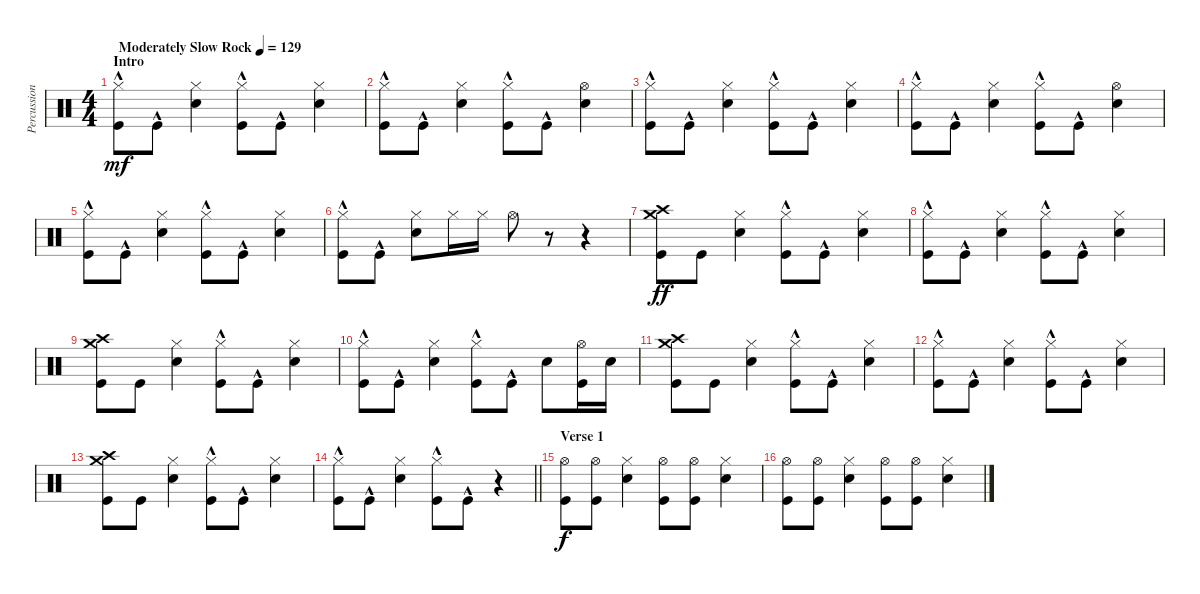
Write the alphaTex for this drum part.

\track ("Percussion" "Percussion") {instrument percussion}
\staff {score}
\articulation defaults
\ts (4 4)
\section ("" "Intro")
\tempo (129 "Moderately Slow Rock")
\clef neutral
\ks c
("Hi-Hat (closed)" "Kick (hit)"{hac}).8{dy mf} "Kick (hit)"{hac}.8 ("Hi-Hat (closed)" "Snare (hit) 2").4 ("Hi-Hat (closed)" "Kick (hit)"{hac}).8 "Kick (hit)"{hac}.8 ("Hi-Hat (closed)" "Snare (hit) 2").4 |
("Hi-Hat (closed)" "Kick (hit)"{hac}).8 "Kick (hit)"{hac}.8 ("Hi-Hat (closed)" "Snare (hit) 2").4 ("Hi-Hat (closed)" "Kick (hit)"{hac}).8 "Kick (hit)"{hac}.8 ("Hi-Hat (open)" "Snare (hit) 2").4 |
("Hi-Hat (closed)" "Kick (hit)"{hac}).8 "Kick (hit)"{hac}.8 ("Hi-Hat (closed)" "Snare (hit) 2").4 ("Hi-Hat (closed)" "Kick (hit)"{hac}).8 "Kick (hit)"{hac}.8 ("Hi-Hat (closed)" "Snare (hit) 2").4 |
("Hi-Hat (closed)" "Kick (hit)"{hac}).8 "Kick (hit)"{hac}.8 ("Hi-Hat (closed)" "Snare (hit) 2").4 ("Hi-Hat (closed)" "Kick (hit)"{hac}).8 "Kick (hit)"{hac}.8 ("Hi-Hat (open)" "Snare (hit) 2").4 |
("Hi-Hat (closed)" "Kick (hit)"{hac}).8 "Kick (hit)"{hac}.8 ("Hi-Hat (closed)" "Snare (hit) 2").4 ("Hi-Hat (closed)" "Kick (hit)"{hac}).8 "Kick (hit)"{hac}.8 ("Hi-Hat (closed)" "Snare (hit) 2").4 |
("Hi-Hat (closed)" "Kick (hit)"{hac}).8 "Kick (hit)"{hac}.8 ("Hi-Hat (closed)" "Snare (hit) 2").8 "Hi-Hat (closed)".16 "Hi-Hat (closed)".16 "Hi-Hat (open)".8 r.8 r.4 |
("Crash medium (hit)" "Crash high (hit)" "Kick (hit)").8{dy ff} "Kick (hit)".8 ("Hi-Hat (closed)" "Snare (hit) 2").4 ("Hi-Hat (closed)" "Kick (hit)"{hac}).8 "Kick (hit)"{hac}.8 ("Hi-Hat (closed)" "Snare (hit) 2").4 |
("Hi-Hat (closed)" "Kick (hit)"{hac}).8 "Kick (hit)"{hac}.8 ("Hi-Hat (closed)" "Snare (hit) 2").4 ("Hi-Hat (closed)" "Kick (hit)"{hac}).8 "Kick (hit)"{hac}.8 ("Hi-Hat (closed)" "Snare (hit) 2").4 |
("Crash medium (hit)" "Crash high (hit)" "Kick (hit)").8 "Kick (hit)".8 ("Hi-Hat (closed)" "Snare (hit) 2").4 ("Hi-Hat (closed)" "Kick (hit)"{hac}).8 "Kick (hit)"{hac}.8 ("Hi-Hat (closed)" "Snare (hit) 2").4 |
("Hi-Hat (closed)" "Kick (hit)"{hac}).8 "Kick (hit)"{hac}.8 ("Hi-Hat (closed)" "Snare (hit) 2").4 ("Hi-Hat (closed)" "Kick (hit)"{hac}).8 "Kick (hit)"{hac}.8 "Snare (hit) 2".8 ("Hi-Hat (open)" "Kick (hit)").16 "Snare (hit) 2".16 |
("Crash medium (hit)" "Crash high (hit)" "Kick (hit)").8 "Kick (hit)".8 ("Hi-Hat (closed)" "Snare (hit) 2").4 ("Hi-Hat (closed)" "Kick (hit)"{hac}).8 "Kick (hit)"{hac}.8 ("Hi-Hat (closed)" "Snare (hit) 2").4 |
("Hi-Hat (closed)" "Kick (hit)"{hac}).8 "Kick (hit)"{hac}.8 ("Hi-Hat (closed)" "Snare (hit) 2").4 ("Hi-Hat (closed)" "Kick (hit)"{hac}).8 "Kick (hit)"{hac}.8 ("Hi-Hat (closed)" "Snare (hit) 2").4 |
("Crash medium (hit)" "Crash high (hit)" "Kick (hit)").8 "Kick (hit)".8 ("Hi-Hat (closed)" "Snare (hit) 2").4 ("Hi-Hat (closed)" "Kick (hit)"{hac}).8 "Kick (hit)"{hac}.8 ("Hi-Hat (closed)" "Snare (hit) 2").4 |
\barLineRight lightlight
("Hi-Hat (closed)" "Kick (hit)"{hac}).8 "Kick (hit)"{hac}.8 ("Hi-Hat (closed)" "Snare (hit) 2").4 ("Hi-Hat (closed)" "Kick (hit)"{hac}).8 "Kick (hit)"{hac}.8 r.4 |
\section ("" "Verse 1")
("Hi-Hat (open)" "Kick (hit)").8{dy f} ("Hi-Hat (open)" "Kick (hit)").8 ("Hi-Hat (closed)" "Snare (hit) 2").4 ("Hi-Hat (open)" "Kick (hit)").8 ("Hi-Hat (open)" "Kick (hit)").8 ("Hi-Hat (closed)" "Snare (hit) 2").4 |
("Hi-Hat (open)" "Kick (hit)").8 ("Hi-Hat (open)" "Kick (hit)").8 ("Hi-Hat (closed)" "Snare (hit) 2").4 ("Hi-Hat (open)" "Kick (hit)").8 ("Hi-Hat (open)" "Kick (hit)").8 ("Hi-Hat (closed)" "Snare (hit) 2").4
